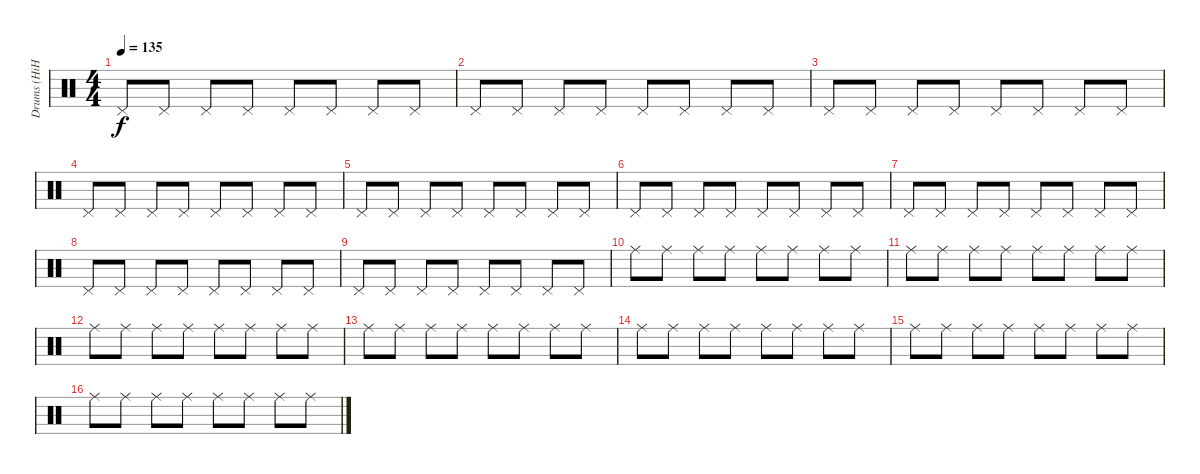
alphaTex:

\track ("Drums (HiHat)" "Drums (HiH") {instrument percussion}
\staff {score}
\articulation defaults
\ts (4 4)
\tempo 135
\clef neutral
\ks c "Pedal Hi-Hat (hit)".8{dy f} "Pedal Hi-Hat (hit)".8 "Pedal Hi-Hat (hit)".8 "Pedal Hi-Hat (hit)".8 "Pedal Hi-Hat (hit)".8 "Pedal Hi-Hat (hit)".8 "Pedal Hi-Hat (hit)".8 "Pedal Hi-Hat (hit)".8
|
"Pedal Hi-Hat (hit)".8 "Pedal Hi-Hat (hit)".8 "Pedal Hi-Hat (hit)".8 "Pedal Hi-Hat (hit)".8 "Pedal Hi-Hat (hit)".8 "Pedal Hi-Hat (hit)".8 "Pedal Hi-Hat (hit)".8 "Pedal Hi-Hat (hit)".8 |
"Pedal Hi-Hat (hit)".8 "Pedal Hi-Hat (hit)".8 "Pedal Hi-Hat (hit)".8 "Pedal Hi-Hat (hit)".8 "Pedal Hi-Hat (hit)".8 "Pedal Hi-Hat (hit)".8 "Pedal Hi-Hat (hit)".8 "Pedal Hi-Hat (hit)".8 |
"Pedal Hi-Hat (hit)".8 "Pedal Hi-Hat (hit)".8 "Pedal Hi-Hat (hit)".8 "Pedal Hi-Hat (hit)".8 "Pedal Hi-Hat (hit)".8 "Pedal Hi-Hat (hit)".8 "Pedal Hi-Hat (hit)".8 "Pedal Hi-Hat (hit)".8 |
"Pedal Hi-Hat (hit)".8 "Pedal Hi-Hat (hit)".8 "Pedal Hi-Hat (hit)".8 "Pedal Hi-Hat (hit)".8 "Pedal Hi-Hat (hit)".8 "Pedal Hi-Hat (hit)".8 "Pedal Hi-Hat (hit)".8 "Pedal Hi-Hat (hit)".8 |
"Pedal Hi-Hat (hit)".8 "Pedal Hi-Hat (hit)".8 "Pedal Hi-Hat (hit)".8 "Pedal Hi-Hat (hit)".8 "Pedal Hi-Hat (hit)".8 "Pedal Hi-Hat (hit)".8 "Pedal Hi-Hat (hit)".8 "Pedal Hi-Hat (hit)".8 |
"Pedal Hi-Hat (hit)".8 "Pedal Hi-Hat (hit)".8 "Pedal Hi-Hat (hit)".8 "Pedal Hi-Hat (hit)".8 "Pedal Hi-Hat (hit)".8 "Pedal Hi-Hat (hit)".8 "Pedal Hi-Hat (hit)".8 "Pedal Hi-Hat (hit)".8 |
"Pedal Hi-Hat (hit)".8 "Pedal Hi-Hat (hit)".8 "Pedal Hi-Hat (hit)".8 "Pedal Hi-Hat (hit)".8 "Pedal Hi-Hat (hit)".8 "Pedal Hi-Hat (hit)".8 "Pedal Hi-Hat (hit)".8 "Pedal Hi-Hat (hit)".8 |
"Pedal Hi-Hat (hit)".8 "Pedal Hi-Hat (hit)".8 "Pedal Hi-Hat (hit)".8 "Pedal Hi-Hat (hit)".8 "Pedal Hi-Hat (hit)".8 "Pedal Hi-Hat (hit)".8 "Pedal Hi-Hat (hit)".8 "Pedal Hi-Hat (hit)".8 |
"Ride (middle)".8 "Ride (middle)".8 "Ride (middle)".8 "Ride (middle)".8 "Ride (middle)".8 "Ride (middle)".8 "Ride (middle)".8 "Ride (middle)".8 |
"Ride (middle)".8 "Ride (middle)".8 "Ride (middle)".8 "Ride (middle)".8 "Ride (middle)".8 "Ride (middle)".8 "Ride (middle)".8 "Ride (middle)".8 |
"Ride (middle)".8 "Ride (middle)".8 "Ride (middle)".8 "Ride (middle)".8 "Ride (middle)".8 "Ride (middle)".8 "Ride (middle)".8 "Ride (middle)".8 |
"Ride (middle)".8 "Ride (middle)".8 "Ride (middle)".8 "Ride (middle)".8 "Ride (middle)".8 "Ride (middle)".8 "Ride (middle)".8 "Ride (middle)".8 |
"Ride (middle)".8 "Ride (middle)".8 "Ride (middle)".8 "Ride (middle)".8 "Ride (middle)".8 "Ride (middle)".8 "Ride (middle)".8 "Ride (middle)".8 |
"Ride (middle)".8 "Ride (middle)".8 "Ride (middle)".8 "Ride (middle)".8 "Ride (middle)".8 "Ride (middle)".8 "Ride (middle)".8 "Ride (middle)".8 |
"Ride (middle)".8 "Ride (middle)".8 "Ride (middle)".8 "Ride (middle)".8 "Ride (middle)".8 "Ride (middle)".8 "Ride (middle)".8 "Ride (middle)".8
